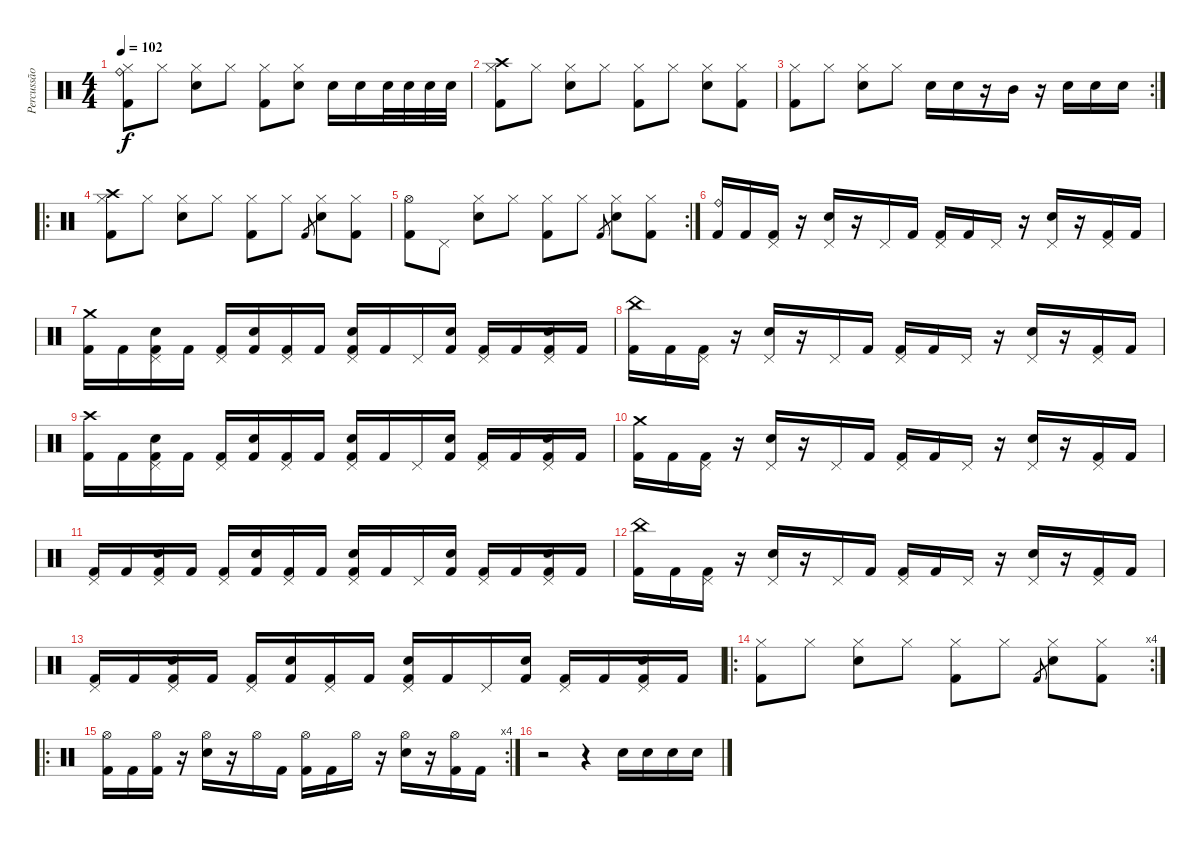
\track ("Percussão" "Percussão") {instrument percussion}
\staff {score}
\articulation defaults
\ts (4 4)
\tempo 102
\clef neutral
\ks c
("Ride (bell)" "Hi-Hat (closed)" "Kick (hit) 2").8{dy f} "Hi-Hat (closed)".8 ("Hi-Hat (closed)" "Snare (hit) 2").8 "Hi-Hat (closed)".8 ("Hi-Hat (closed)" "Kick (hit) 2").8 ("Hi-Hat (closed)" "Snare (hit) 2").8 "Snare (hit) 2".16 "Snare (hit) 2".16 "Snare (hit) 2".32 "Snare (hit) 2".32 "Snare (hit) 2".32 "Snare (hit) 2".32 |
("Crash high (hit)" "Hi-Hat (closed)" "Kick (hit) 2").8 "Hi-Hat (closed)".8 ("Hi-Hat (closed)" "Snare (hit) 2").8 "Hi-Hat (closed)".8 ("Hi-Hat (closed)" "Kick (hit) 2").8 "Hi-Hat (closed)".8 ("Hi-Hat (closed)" "Snare (hit) 2").8 ("Hi-Hat (closed)" "Kick (hit) 2").8 |
\rc 2
("Hi-Hat (closed)" "Kick (hit) 2").8 "Hi-Hat (closed)".8 ("Hi-Hat (closed)" "Snare (hit) 2").8 "Hi-Hat (closed)".8 "Snare (hit) 2".16 "Snare (hit) 2".16 r.16 "Mid Tom (hit)".16 r.16 "Snare (hit) 2".16 "Snare (hit) 2".16 "Snare (hit) 2".16 |
\ro
("Crash high (hit)" "Hi-Hat (closed)" "Kick (hit) 2").8 "Hi-Hat (closed)".8 ("Hi-Hat (closed)" "Snare (hit) 2").8 "Hi-Hat (closed)".8 ("Hi-Hat (closed)" "Kick (hit) 2").8 "Hi-Hat (closed)".8 "Kick (hit) 2".8{gr} ("Hi-Hat (closed)" "Snare (hit) 2").8 ("Hi-Hat (closed)" "Kick (hit) 2").8 |
\rc 2
("Hi-Hat (open)" "Kick (hit) 2").8 "Pedal Hi-Hat (hit)".8 ("Hi-Hat (closed)" "Snare (hit) 2").8 "Hi-Hat (closed)".8 ("Hi-Hat (closed)" "Kick (hit) 2").8 "Hi-Hat (closed)".8 "Kick (hit) 2".8{gr} ("Hi-Hat (closed)" "Snare (hit) 2").8 ("Hi-Hat (closed)" "Kick (hit) 2").8 |
("Ride (bell)" "Kick (hit) 2").16 "Kick (hit) 2".16 ("Pedal Hi-Hat (hit)" "Kick (hit) 2").16 r.16 ("Pedal Hi-Hat (hit)" "Snare (hit) 2").16 r.16 "Pedal Hi-Hat (hit)".16 "Kick (hit) 2".16 ("Pedal Hi-Hat (hit)" "Kick (hit) 2").16 "Kick (hit) 2".16 "Pedal Hi-Hat (hit)".16 r.16 ("Pedal Hi-Hat (hit)" "Snare (hit) 2").16 r.16 ("Pedal Hi-Hat (hit)" "Kick (hit) 2").16 "Kick (hit) 2".16 |
("Crash medium (hit)" "Kick (hit) 2").16 "Kick (hit) 2".16 ("Pedal Hi-Hat (hit)" "Snare (hit) 2" "Kick (hit) 2").16 "Kick (hit) 2".16 ("Pedal Hi-Hat (hit)" "Kick (hit) 2").16 ("Snare (hit) 2" "Kick (hit) 2").16 ("Pedal Hi-Hat (hit)" "Kick (hit) 2").16 "Kick (hit) 2".16 ("Pedal Hi-Hat (hit)" "Kick (hit) 2" "Snare (hit) 2").16 "Kick (hit) 2".16 "Pedal Hi-Hat (hit)".16 ("Snare (hit) 2" "Kick (hit) 2").16 ("Pedal Hi-Hat (hit)" "Kick (hit) 2").16 "Kick (hit) 2".16 ("Pedal Hi-Hat (hit)" "Kick (hit) 2" "Snare (hit) 2").16 "Kick (hit) 2".16 |
("China (hit)" "Kick (hit) 2").16 "Kick (hit) 2".16 ("Pedal Hi-Hat (hit)" "Kick (hit) 2").16 r.16 ("Pedal Hi-Hat (hit)" "Snare (hit) 2").16 r.16 "Pedal Hi-Hat (hit)".16 "Kick (hit) 2".16 ("Pedal Hi-Hat (hit)" "Kick (hit) 2").16 "Kick (hit) 2".16 "Pedal Hi-Hat (hit)".16 r.16 ("Pedal Hi-Hat (hit)" "Snare (hit) 2").16 r.16 ("Pedal Hi-Hat (hit)" "Kick (hit) 2").16 "Kick (hit) 2".16 |
("Crash high (hit)" "Kick (hit) 2").16 "Kick (hit) 2".16 ("Pedal Hi-Hat (hit)" "Snare (hit) 2" "Kick (hit) 2").16 "Kick (hit) 2".16 ("Pedal Hi-Hat (hit)" "Kick (hit) 2").16 ("Snare (hit) 2" "Kick (hit) 2").16 ("Pedal Hi-Hat (hit)" "Kick (hit) 2").16 "Kick (hit) 2".16 ("Pedal Hi-Hat (hit)" "Kick (hit) 2" "Snare (hit) 2").16 "Kick (hit) 2".16 "Pedal Hi-Hat (hit)".16 ("Snare (hit) 2" "Kick (hit) 2").16 ("Pedal Hi-Hat (hit)" "Kick (hit) 2").16 "Kick (hit) 2".16 ("Pedal Hi-Hat (hit)" "Kick (hit) 2" "Snare (hit) 2").16 "Kick (hit) 2".16 |
("Crash medium (hit)" "Kick (hit) 2").16 "Kick (hit) 2".16 ("Pedal Hi-Hat (hit)" "Kick (hit) 2").16 r.16 ("Pedal Hi-Hat (hit)" "Snare (hit) 2").16 r.16 "Pedal Hi-Hat (hit)".16 "Kick (hit) 2".16 ("Pedal Hi-Hat (hit)" "Kick (hit) 2").16 "Kick (hit) 2".16 "Pedal Hi-Hat (hit)".16 r.16 ("Pedal Hi-Hat (hit)" "Snare (hit) 2").16 r.16 ("Pedal Hi-Hat (hit)" "Kick (hit) 2").16 "Kick (hit) 2".16 |
("Pedal Hi-Hat (hit)" "Kick (hit) 2").16 "Kick (hit) 2".16 ("Pedal Hi-Hat (hit)" "Snare (hit) 2" "Kick (hit) 2").16 "Kick (hit) 2".16 ("Pedal Hi-Hat (hit)" "Kick (hit) 2").16 ("Snare (hit) 2" "Kick (hit) 2").16 ("Pedal Hi-Hat (hit)" "Kick (hit) 2").16 "Kick (hit) 2".16 ("Pedal Hi-Hat (hit)" "Kick (hit) 2" "Snare (hit) 2").16 "Kick (hit) 2".16 "Pedal Hi-Hat (hit)".16 ("Snare (hit) 2" "Kick (hit) 2").16 ("Pedal Hi-Hat (hit)" "Kick (hit) 2").16 "Kick (hit) 2".16 ("Pedal Hi-Hat (hit)" "Kick (hit) 2" "Snare (hit) 2").16 "Kick (hit) 2".16 |
("China (hit)" "Kick (hit) 2").16 "Kick (hit) 2".16 ("Pedal Hi-Hat (hit)" "Kick (hit) 2").16 r.16 ("Pedal Hi-Hat (hit)" "Snare (hit) 2").16 r.16 "Pedal Hi-Hat (hit)".16 "Kick (hit) 2".16 ("Pedal Hi-Hat (hit)" "Kick (hit) 2").16 "Kick (hit) 2".16 "Pedal Hi-Hat (hit)".16 r.16 ("Pedal Hi-Hat (hit)" "Snare (hit) 2").16 r.16 ("Pedal Hi-Hat (hit)" "Kick (hit) 2").16 "Kick (hit) 2".16 |
("Pedal Hi-Hat (hit)" "Kick (hit) 2").16 "Kick (hit) 2".16 ("Pedal Hi-Hat (hit)" "Snare (hit) 2" "Kick (hit) 2").16 "Kick (hit) 2".16 ("Pedal Hi-Hat (hit)" "Kick (hit) 2").16 ("Snare (hit) 2" "Kick (hit) 2").16 ("Pedal Hi-Hat (hit)" "Kick (hit) 2").16 "Kick (hit) 2".16 ("Pedal Hi-Hat (hit)" "Kick (hit) 2" "Snare (hit) 2").16 "Kick (hit) 2".16 "Pedal Hi-Hat (hit)".16 ("Snare (hit) 2" "Kick (hit) 2").16 ("Pedal Hi-Hat (hit)" "Kick (hit) 2").16 "Kick (hit) 2".16 ("Pedal Hi-Hat (hit)" "Kick (hit) 2" "Snare (hit) 2").16 "Kick (hit) 2".16 |
\ro
\rc 4
("Hi-Hat (closed)" "Kick (hit) 2").8 "Hi-Hat (closed)".8 ("Hi-Hat (closed)" "Snare (hit) 2").8 "Hi-Hat (closed)".8 ("Hi-Hat (closed)" "Kick (hit) 2").8 "Hi-Hat (closed)".8 "Kick (hit) 2".8{gr} ("Hi-Hat (closed)" "Snare (hit) 2").8 ("Hi-Hat (closed)" "Kick (hit) 2").8 |
\ro
\rc 4
("Hi-Hat (open)" "Kick (hit) 2").16 "Kick (hit) 2".16 ("Hi-Hat (open)" "Kick (hit) 2").16 r.16 ("Hi-Hat (open)" "Snare (hit) 2").16 r.16 "Hi-Hat (open)".16 "Kick (hit) 2".16 ("Hi-Hat (open)" "Kick (hit) 2").16 "Kick (hit) 2".16 "Hi-Hat (open)".16 r.16 ("Hi-Hat (open)" "Snare (hit) 2").16 r.16 ("Hi-Hat (open)" "Kick (hit) 2").16 "Kick (hit) 2".16 |
r.2 r.4 "Snare (hit) 2".16 "Snare (hit) 2".16 "Snare (hit) 2".16 "Snare (hit) 2".16
